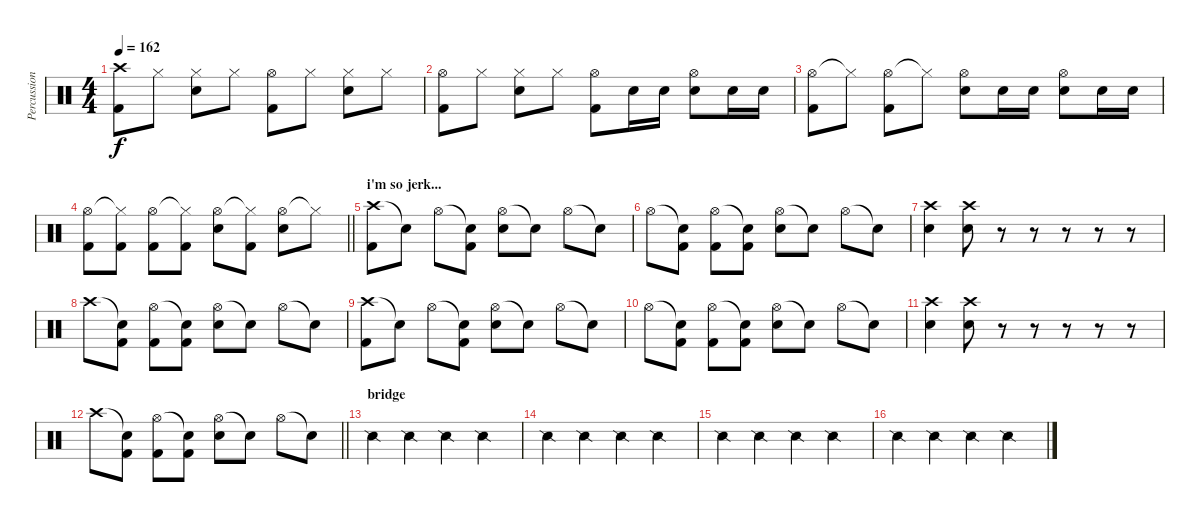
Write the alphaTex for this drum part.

\track ("Percussioni" "Percussion") {instrument percussion}
\staff {score}
\articulation defaults
\ts (4 4)
\tempo 162
\clef neutral
\ks c
("Crash high (hit)" "Kick (hit) 2").8{dy f} "Hi-Hat (closed)".8 ("Hi-Hat (closed)" "Snare (hit) 2").8 "Hi-Hat (closed)".8 ("Hi-Hat (open)" "Kick (hit) 2").8 "Hi-Hat (closed)".8 ("Hi-Hat (closed)" "Snare (hit) 2").8 "Hi-Hat (closed)".8 |
("Hi-Hat (open)" "Kick (hit) 2").8 "Hi-Hat (closed)".8 ("Hi-Hat (closed)" "Snare (hit) 2").8 "Hi-Hat (closed)".8 ("Hi-Hat (open)" "Kick (hit) 2").8 "Snare (hit) 2".16 "Snare (hit) 2".16 ("Hi-Hat (open)" "Snare (hit) 2").8 "Snare (hit) 2".16 "Snare (hit) 2".16 |
("Hi-Hat (open)" "Kick (hit) 2").8 "Hi-Hat (closed)"{t}.8 ("Hi-Hat (open)" "Kick (hit) 2").8 "Hi-Hat (closed)"{t}.8 ("Hi-Hat (open)" "Snare (hit) 2").8 "Snare (hit) 2".16 "Snare (hit) 2".16 ("Hi-Hat (open)" "Snare (hit) 2").8 "Snare (hit) 2".16 "Snare (hit) 2".16 |
\barLineRight lightlight
("Hi-Hat (open)" "Kick (hit) 2").8 ("Hi-Hat (closed)"{t} "Kick (hit) 2").8 ("Hi-Hat (open)" "Kick (hit) 2").8 ("Hi-Hat (closed)"{t} "Kick (hit) 2").8 ("Hi-Hat (open)" "Snare (hit) 2").8 ("Hi-Hat (closed)"{t} "Kick (hit) 2").8 ("Hi-Hat (open)" "Snare (hit) 2").8 "Hi-Hat (closed)"{t}.8 |
\section ("" "i'm so jerk...")
("Crash high (hit)" "Kick (hit) 2").8 "Snare (hit)"{t}.8 "Hi-Hat (open)".8 ("Snare (hit)"{t} "Kick (hit) 2").8 ("Hi-Hat (open)" "Snare (hit) 2").8 "Snare (hit)"{t}.8 "Hi-Hat (open)".8 "Snare (hit)"{t}.8 |
"Hi-Hat (open)".8 ("Snare (hit)"{t} "Kick (hit) 2").8 ("Hi-Hat (open)" "Kick (hit) 2").8 ("Snare (hit)"{t} "Kick (hit) 2").8 ("Hi-Hat (open)" "Snare (hit) 2").8 "Snare (hit)"{t}.8 "Hi-Hat (open)".8 "Snare (hit)"{t}.8 |
("Crash high (hit)" "Snare (hit) 2").4 ("Crash high (hit)" "Snare (hit) 2").8 r.8 r.8 r.8 r.8 r.8 |
"Crash high (hit)".8 ("Snare (hit)"{t} "Kick (hit) 2").8 ("Hi-Hat (open)" "Kick (hit) 2").8 ("Snare (hit)"{t} "Kick (hit) 2").8 ("Hi-Hat (open)" "Snare (hit) 2").8 "Snare (hit)"{t}.8 "Hi-Hat (open)".8 "Snare (hit)"{t}.8 |
("Crash high (hit)" "Kick (hit) 2").8 "Snare (hit)"{t}.8 "Hi-Hat (open)".8 ("Snare (hit)"{t} "Kick (hit) 2").8 ("Hi-Hat (open)" "Snare (hit) 2").8 "Snare (hit)"{t}.8 "Hi-Hat (open)".8 "Snare (hit)"{t}.8 |
"Hi-Hat (open)".8 ("Snare (hit)"{t} "Kick (hit) 2").8 ("Hi-Hat (open)" "Kick (hit) 2").8 ("Snare (hit)"{t} "Kick (hit) 2").8 ("Hi-Hat (open)" "Snare (hit) 2").8 "Snare (hit)"{t}.8 "Hi-Hat (open)".8 "Snare (hit)"{t}.8 |
("Crash high (hit)" "Snare (hit) 2").4 ("Crash high (hit)" "Snare (hit) 2").8 r.8 r.8 r.8 r.8 r.8 |
\barLineRight lightlight "Crash high (hit)".8
("Snare (hit)"{t} "Kick (hit) 2").8 ("Hi-Hat (open)" "Kick (hit) 2").8 ("Snare (hit)"{t} "Kick (hit) 2").8 ("Hi-Hat (open)" "Snare (hit) 2").8 "Snare (hit)"{t}.8 "Hi-Hat (open)".8 "Snare (hit)"{t}.8 |
\section ("" "bridge")
"Snare (side stick) 2".4 "Snare (side stick) 2".4 "Snare (side stick) 2".4 "Snare (side stick) 2".4 |
"Snare (side stick) 2".4 "Snare (side stick) 2".4 "Snare (side stick) 2".4 "Snare (side stick) 2".4 |
"Snare (side stick) 2".4 "Snare (side stick) 2".4 "Snare (side stick) 2".4 "Snare (side stick) 2".4 |
"Snare (side stick) 2".4 "Snare (side stick) 2".4 "Snare (side stick) 2".4 "Snare (side stick) 2".4
